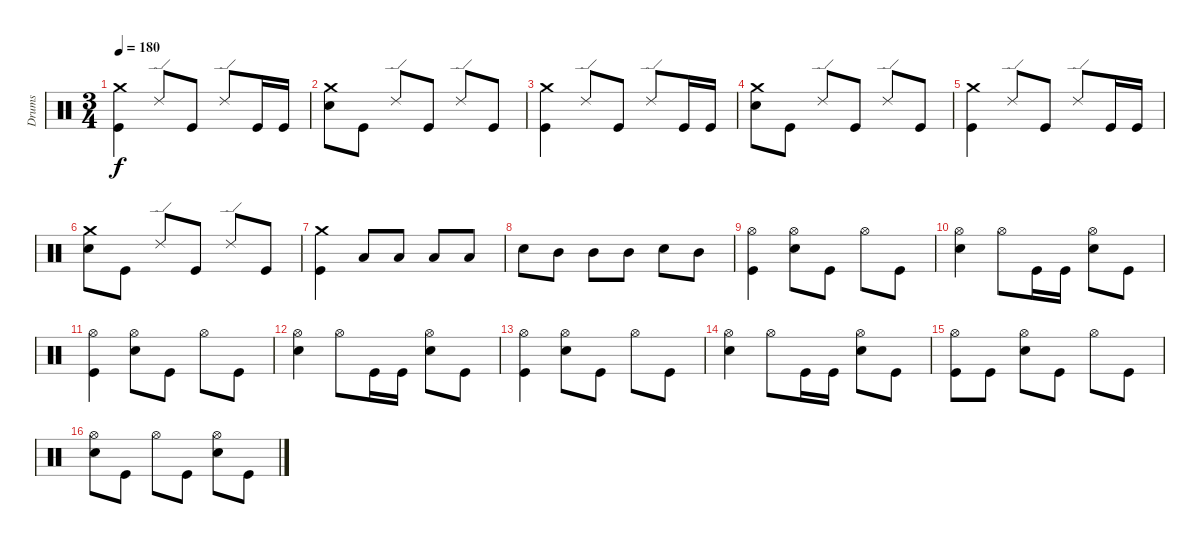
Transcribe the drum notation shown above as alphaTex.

\track ("Drums" "Drums") {instrument percussion}
\staff {score}
\articulation defaults
\ts (3 4)
\tempo 180
\clef neutral
\ks c
("Crash medium (hit)" "Kick (hit)").4{dy f} "Ride (edge) 2".8 "Kick (hit)".8 "Ride (edge) 2".8 "Kick (hit)".16 "Kick (hit)".16 |
("Crash medium (hit)" "Electric Snare (hit)").8 "Kick (hit)".8 "Ride (edge) 2".8 "Kick (hit)".8 "Ride (edge) 2".8 "Kick (hit)".8 |
("Crash medium (hit)" "Kick (hit)").4 "Ride (edge) 2".8 "Kick (hit)".8 "Ride (edge) 2".8 "Kick (hit)".16 "Kick (hit)".16 |
("Crash medium (hit)" "Electric Snare (hit)").8 "Kick (hit)".8 "Ride (edge) 2".8 "Kick (hit)".8 "Ride (edge) 2".8 "Kick (hit)".8 |
("Crash medium (hit)" "Kick (hit)").4 "Ride (edge) 2".8 "Kick (hit)".8 "Ride (edge) 2".8 "Kick (hit)".16 "Kick (hit)".16 |
("Crash medium (hit)" "Electric Snare (hit)").8 "Kick (hit)".8 "Ride (edge) 2".8 "Kick (hit)".8 "Ride (edge) 2".8 "Kick (hit)".8 |
("Crash medium (hit)" "Kick (hit)").4 "Low Floor Tom (hit)".8 "Low Floor Tom (hit)".8 "Low Tom (hit)".8 "Low Tom (hit)".8 |
"Electric Snare (hit)".8 "Mid Tom (hit)".8 "Mid Tom (hit)".8 "Mid Tom (hit)".8 "Electric Snare (hit)".8 "Mid Tom (hit)".8 |
("Hi-Hat (open)" "Kick (hit)").4 ("Hi-Hat (open)" "Electric Snare (hit)").8 "Kick (hit)".8 "Hi-Hat (open)".8 "Kick (hit)".8 |
("Hi-Hat (open)" "Electric Snare (hit)").4 "Hi-Hat (open)".8 "Kick (hit)".16 "Kick (hit)".16 ("Hi-Hat (open)" "Electric Snare (hit)").8 "Kick (hit)".8 |
("Hi-Hat (open)" "Kick (hit)").4 ("Hi-Hat (open)" "Electric Snare (hit)").8 "Kick (hit)".8 "Hi-Hat (open)".8 "Kick (hit)".8 |
("Hi-Hat (open)" "Electric Snare (hit)").4 "Hi-Hat (open)".8 "Kick (hit)".16 "Kick (hit)".16 ("Hi-Hat (open)" "Electric Snare (hit)").8 "Kick (hit)".8 |
("Hi-Hat (open)" "Kick (hit)").4 ("Hi-Hat (open)" "Electric Snare (hit)").8 "Kick (hit)".8 "Hi-Hat (open)".8 "Kick (hit)".8 |
("Hi-Hat (open)" "Electric Snare (hit)").4 "Hi-Hat (open)".8 "Kick (hit)".16 "Kick (hit)".16 ("Hi-Hat (open)" "Electric Snare (hit)").8 "Kick (hit)".8 |
("Hi-Hat (open)" "Kick (hit)").8 "Kick (hit)".8 ("Hi-Hat (open)" "Electric Snare (hit)").8 "Kick (hit)".8 "Hi-Hat (open)".8 "Kick (hit)".8 |
("Hi-Hat (open)" "Electric Snare (hit)").8 "Kick (hit)".8 "Hi-Hat (open)".8 "Kick (hit)".8 ("Hi-Hat (open)" "Electric Snare (hit)").8 "Kick (hit)".8
